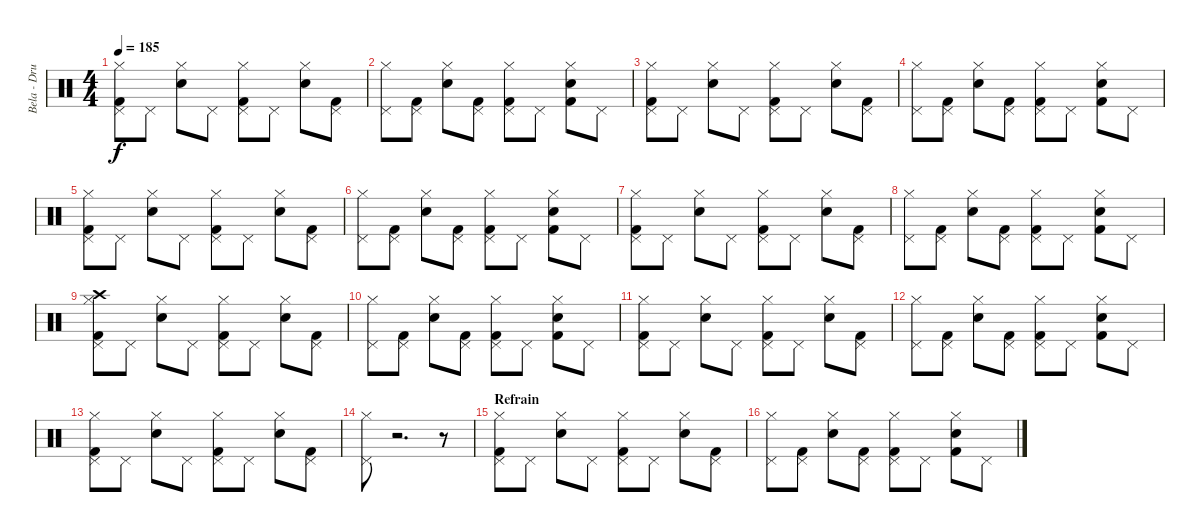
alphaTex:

\track ("Bela - Drums" "Bela - Dru") {instrument percussion}
\staff {score}
\articulation defaults
\ts (4 4)
\tempo 185
\clef neutral
\ks c
("Hi-Hat (closed)" "Pedal Hi-Hat (hit)" "Kick (hit) 2").8{dy f} "Pedal Hi-Hat (hit)".8 ("Hi-Hat (closed)" "Electric Snare (hit)").8 "Pedal Hi-Hat (hit)".8 ("Hi-Hat (closed)" "Kick (hit) 2" "Pedal Hi-Hat (hit)").8 "Pedal Hi-Hat (hit)".8 ("Hi-Hat (closed)" "Electric Snare (hit)").8 ("Pedal Hi-Hat (hit)" "Kick (hit) 2").8 |
("Hi-Hat (closed)" "Pedal Hi-Hat (hit)").8 ("Kick (hit) 2" "Pedal Hi-Hat (hit)").8 ("Hi-Hat (closed)" "Electric Snare (hit)").8 ("Kick (hit) 2" "Pedal Hi-Hat (hit)").8 ("Kick (hit) 2" "Hi-Hat (closed)" "Pedal Hi-Hat (hit)").8 "Pedal Hi-Hat (hit)".8 ("Hi-Hat (closed)" "Kick (hit) 2" "Electric Snare (hit)").8 "Pedal Hi-Hat (hit)".8 |
("Hi-Hat (closed)" "Pedal Hi-Hat (hit)" "Kick (hit) 2").8 "Pedal Hi-Hat (hit)".8 ("Hi-Hat (closed)" "Electric Snare (hit)").8 "Pedal Hi-Hat (hit)".8 ("Hi-Hat (closed)" "Kick (hit) 2" "Pedal Hi-Hat (hit)").8 "Pedal Hi-Hat (hit)".8 ("Hi-Hat (closed)" "Electric Snare (hit)").8 ("Pedal Hi-Hat (hit)" "Kick (hit) 2").8 |
("Hi-Hat (closed)" "Pedal Hi-Hat (hit)").8 ("Kick (hit) 2" "Pedal Hi-Hat (hit)").8 ("Hi-Hat (closed)" "Electric Snare (hit)").8 ("Kick (hit) 2" "Pedal Hi-Hat (hit)").8 ("Kick (hit) 2" "Hi-Hat (closed)" "Pedal Hi-Hat (hit)").8 "Pedal Hi-Hat (hit)".8 ("Hi-Hat (closed)" "Kick (hit) 2" "Electric Snare (hit)").8 "Pedal Hi-Hat (hit)".8 |
("Hi-Hat (closed)" "Pedal Hi-Hat (hit)" "Kick (hit) 2").8 "Pedal Hi-Hat (hit)".8 ("Hi-Hat (closed)" "Electric Snare (hit)").8 "Pedal Hi-Hat (hit)".8 ("Hi-Hat (closed)" "Kick (hit) 2" "Pedal Hi-Hat (hit)").8 "Pedal Hi-Hat (hit)".8 ("Hi-Hat (closed)" "Electric Snare (hit)").8 ("Pedal Hi-Hat (hit)" "Kick (hit) 2").8 |
("Hi-Hat (closed)" "Pedal Hi-Hat (hit)").8 ("Kick (hit) 2" "Pedal Hi-Hat (hit)").8 ("Hi-Hat (closed)" "Electric Snare (hit)").8 ("Kick (hit) 2" "Pedal Hi-Hat (hit)").8 ("Kick (hit) 2" "Hi-Hat (closed)" "Pedal Hi-Hat (hit)").8 "Pedal Hi-Hat (hit)".8 ("Hi-Hat (closed)" "Kick (hit) 2" "Electric Snare (hit)").8 "Pedal Hi-Hat (hit)".8 |
("Hi-Hat (closed)" "Pedal Hi-Hat (hit)" "Kick (hit) 2").8 "Pedal Hi-Hat (hit)".8 ("Hi-Hat (closed)" "Electric Snare (hit)").8 "Pedal Hi-Hat (hit)".8 ("Hi-Hat (closed)" "Kick (hit) 2" "Pedal Hi-Hat (hit)").8 "Pedal Hi-Hat (hit)".8 ("Hi-Hat (closed)" "Electric Snare (hit)").8 ("Pedal Hi-Hat (hit)" "Kick (hit) 2").8 |
("Hi-Hat (closed)" "Pedal Hi-Hat (hit)").8 ("Kick (hit) 2" "Pedal Hi-Hat (hit)").8 ("Hi-Hat (closed)" "Electric Snare (hit)").8 ("Kick (hit) 2" "Pedal Hi-Hat (hit)").8 ("Kick (hit) 2" "Hi-Hat (closed)" "Pedal Hi-Hat (hit)").8 "Pedal Hi-Hat (hit)".8 ("Hi-Hat (closed)" "Kick (hit) 2" "Electric Snare (hit)").8 "Pedal Hi-Hat (hit)".8 |
("Crash high (hit)" "Hi-Hat (closed)" "Pedal Hi-Hat (hit)" "Kick (hit) 2").8 "Pedal Hi-Hat (hit)".8 ("Hi-Hat (closed)" "Electric Snare (hit)").8 "Pedal Hi-Hat (hit)".8 ("Hi-Hat (closed)" "Kick (hit) 2" "Pedal Hi-Hat (hit)").8 "Pedal Hi-Hat (hit)".8 ("Hi-Hat (closed)" "Electric Snare (hit)").8 ("Pedal Hi-Hat (hit)" "Kick (hit) 2").8 |
("Hi-Hat (closed)" "Pedal Hi-Hat (hit)").8 ("Kick (hit) 2" "Pedal Hi-Hat (hit)").8 ("Hi-Hat (closed)" "Electric Snare (hit)").8 ("Kick (hit) 2" "Pedal Hi-Hat (hit)").8 ("Kick (hit) 2" "Hi-Hat (closed)" "Pedal Hi-Hat (hit)").8 "Pedal Hi-Hat (hit)".8 ("Hi-Hat (closed)" "Kick (hit) 2" "Electric Snare (hit)").8 "Pedal Hi-Hat (hit)".8 |
("Hi-Hat (closed)" "Pedal Hi-Hat (hit)" "Kick (hit) 2").8 "Pedal Hi-Hat (hit)".8 ("Hi-Hat (closed)" "Electric Snare (hit)").8 "Pedal Hi-Hat (hit)".8 ("Hi-Hat (closed)" "Kick (hit) 2" "Pedal Hi-Hat (hit)").8 "Pedal Hi-Hat (hit)".8 ("Hi-Hat (closed)" "Electric Snare (hit)").8 ("Pedal Hi-Hat (hit)" "Kick (hit) 2").8 |
("Hi-Hat (closed)" "Pedal Hi-Hat (hit)").8 ("Kick (hit) 2" "Pedal Hi-Hat (hit)").8 ("Hi-Hat (closed)" "Electric Snare (hit)").8 ("Kick (hit) 2" "Pedal Hi-Hat (hit)").8 ("Kick (hit) 2" "Hi-Hat (closed)" "Pedal Hi-Hat (hit)").8 "Pedal Hi-Hat (hit)".8 ("Hi-Hat (closed)" "Kick (hit) 2" "Electric Snare (hit)").8 "Pedal Hi-Hat (hit)".8 |
("Hi-Hat (closed)" "Pedal Hi-Hat (hit)" "Kick (hit) 2").8 "Pedal Hi-Hat (hit)".8 ("Hi-Hat (closed)" "Electric Snare (hit)").8 "Pedal Hi-Hat (hit)".8 ("Hi-Hat (closed)" "Kick (hit) 2" "Pedal Hi-Hat (hit)").8 "Pedal Hi-Hat (hit)".8 ("Hi-Hat (closed)" "Electric Snare (hit)").8 ("Pedal Hi-Hat (hit)" "Kick (hit) 2").8 |
("Hi-Hat (closed)" "Pedal Hi-Hat (hit)").8 r.2{d} r.8 |
\section ("" "Refrain")
("Hi-Hat (closed)" "Pedal Hi-Hat (hit)" "Kick (hit) 2").8 "Pedal Hi-Hat (hit)".8 ("Hi-Hat (closed)" "Electric Snare (hit)").8 "Pedal Hi-Hat (hit)".8 ("Hi-Hat (closed)" "Kick (hit) 2" "Pedal Hi-Hat (hit)").8 "Pedal Hi-Hat (hit)".8 ("Hi-Hat (closed)" "Electric Snare (hit)").8 ("Pedal Hi-Hat (hit)" "Kick (hit) 2").8 |
("Pedal Hi-Hat (hit)" "Hi-Hat (closed)").8 ("Pedal Hi-Hat (hit)" "Kick (hit) 2").8 ("Hi-Hat (closed)" "Electric Snare (hit)").8 ("Pedal Hi-Hat (hit)" "Kick (hit) 2").8 ("Pedal Hi-Hat (hit)" "Hi-Hat (closed)" "Kick (hit) 2").8 "Pedal Hi-Hat (hit)".8 ("Hi-Hat (closed)" "Electric Snare (hit)" "Kick (hit) 2").8 "Pedal Hi-Hat (hit)".8
